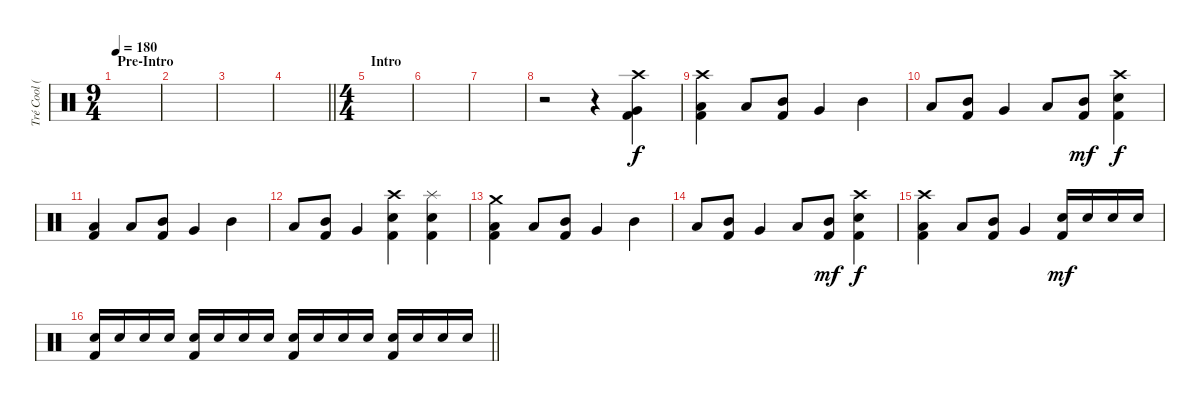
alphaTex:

\track ("Tré Cool (Drums)" "Tré Cool (") {instrument percussion}
\staff {score}
\articulation defaults
\ts (9 4)
\section ("" "Pre-Intro")
\tempo 180
\clef neutral
\ks c
|
|
|
\barLineRight lightlight
|
\ts (4 4)
\section ("" "Intro")
|
|
|
r.2 r.4 ("Crash high (hit)" "Very Low Tom (hit)" "Kick (hit) 2").4 |
("Crash high (hit)" "Low Tom (hit)" "Kick (hit) 2").4 "Low Tom (hit)".8 ("Mid Tom (hit)" "Kick (hit) 2").8 "Very Low Tom (hit)".4 "Mid Tom (hit)".4 |
"Low Tom (hit)".8 ("Mid Tom (hit)" "Kick (hit) 2").8 "Very Low Tom (hit)".4 "Low Tom (hit)".8 ("Mid Tom (hit)" "Kick (hit) 2").8{dy mf} ("Crash high (hit)" "Electric Snare (hit)" "Kick (hit) 2").4{dy f} |
("Low Tom (hit)" "Kick (hit) 2").4 "Low Tom (hit)".8 ("Mid Tom (hit)" "Kick (hit) 2").8 "Very Low Tom (hit)".4 "Mid Tom (hit)".4 |
"Low Tom (hit)".8 ("Mid Tom (hit)" "Kick (hit) 2").8 "Very Low Tom (hit)".4 ("Crash high (hit)" "Electric Snare (hit)" "Kick (hit) 2").4 ("Splash (hit)" "Electric Snare (hit)" "Kick (hit) 2").4 |
("Crash medium (hit)" "Low Tom (hit)" "Kick (hit) 2").4 "Low Tom (hit)".8 ("Mid Tom (hit)" "Kick (hit) 2").8 "Very Low Tom (hit)".4 "Mid Tom (hit)".4 |
"Low Tom (hit)".8 ("Mid Tom (hit)" "Kick (hit) 2").8 "Very Low Tom (hit)".4 "Low Tom (hit)".8 ("Mid Tom (hit)" "Kick (hit) 2").8{dy mf} ("Crash high (hit)" "Electric Snare (hit)" "Kick (hit) 2").4{dy f} |
("Crash high (hit)" "Low Tom (hit)" "Kick (hit) 2").4 "Low Tom (hit)".8 ("Mid Tom (hit)" "Kick (hit) 2").8 "Very Low Tom (hit)".4 ("Electric Snare (hit)" "Kick (hit) 2").16{dy mf} "Electric Snare (hit)".16 "Electric Snare (hit)".16 "Electric Snare (hit)".16 |
\barLineRight lightlight
("Electric Snare (hit)" "Kick (hit) 2").16 "Electric Snare (hit)".16 "Electric Snare (hit)".16 "Electric Snare (hit)".16 ("Electric Snare (hit)" "Kick (hit) 2").16 "Electric Snare (hit)".16 "Electric Snare (hit)".16 "Electric Snare (hit)".16 ("Electric Snare (hit)" "Kick (hit) 2").16 "Electric Snare (hit)".16 "Electric Snare (hit)".16 "Electric Snare (hit)".16 ("Electric Snare (hit)" "Kick (hit) 2").16 "Electric Snare (hit)".16 "Electric Snare (hit)".16 "Electric Snare (hit)".16
